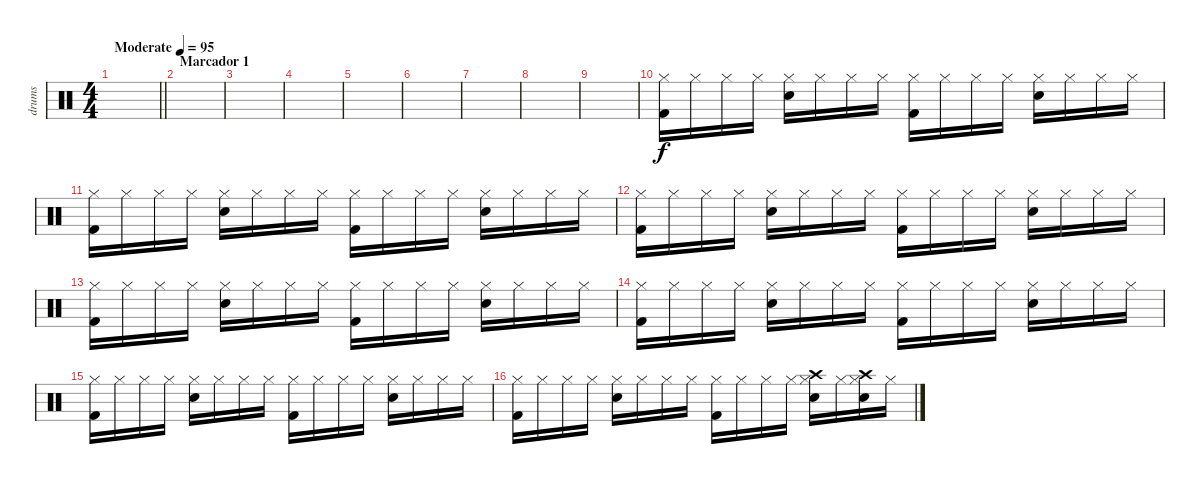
\track ("drums" "drums") {instrument percussion}
\staff {score}
\articulation defaults
\ts (4 4)
\tempo (95 "Moderate")
\clef neutral
\barLineRight lightlight
\ks c
|
\section ("" "Marcador 1")
|
|
|
|
|
|
|
|
("Kick (hit) 2" "Hi-Hat (closed)").16 "Hi-Hat (closed)".16 "Hi-Hat (closed)".16 "Hi-Hat (closed)".16 ("Snare (hit) 2" "Hi-Hat (closed)").16 "Hi-Hat (closed)".16 "Hi-Hat (closed)".16 "Hi-Hat (closed)".16 ("Kick (hit) 2" "Hi-Hat (closed)").16 "Hi-Hat (closed)".16 "Hi-Hat (closed)".16 "Hi-Hat (closed)".16 ("Snare (hit) 2" "Hi-Hat (closed)").16 "Hi-Hat (closed)".16 "Hi-Hat (closed)".16 "Hi-Hat (closed)".16 |
("Kick (hit) 2" "Hi-Hat (closed)").16 "Hi-Hat (closed)".16 "Hi-Hat (closed)".16 "Hi-Hat (closed)".16 ("Snare (hit) 2" "Hi-Hat (closed)").16 "Hi-Hat (closed)".16 "Hi-Hat (closed)".16 "Hi-Hat (closed)".16 ("Kick (hit) 2" "Hi-Hat (closed)").16 "Hi-Hat (closed)".16 "Hi-Hat (closed)".16 "Hi-Hat (closed)".16 ("Snare (hit) 2" "Hi-Hat (closed)").16 "Hi-Hat (closed)".16 "Hi-Hat (closed)".16 "Hi-Hat (closed)".16 |
("Kick (hit) 2" "Hi-Hat (closed)").16 "Hi-Hat (closed)".16 "Hi-Hat (closed)".16 "Hi-Hat (closed)".16 ("Snare (hit) 2" "Hi-Hat (closed)").16 "Hi-Hat (closed)".16 "Hi-Hat (closed)".16 "Hi-Hat (closed)".16 ("Kick (hit) 2" "Hi-Hat (closed)").16 "Hi-Hat (closed)".16 "Hi-Hat (closed)".16 "Hi-Hat (closed)".16 ("Snare (hit) 2" "Hi-Hat (closed)").16 "Hi-Hat (closed)".16 "Hi-Hat (closed)".16 "Hi-Hat (closed)".16 |
("Kick (hit) 2" "Hi-Hat (closed)").16 "Hi-Hat (closed)".16 "Hi-Hat (closed)".16 "Hi-Hat (closed)".16 ("Snare (hit) 2" "Hi-Hat (closed)").16 "Hi-Hat (closed)".16 "Hi-Hat (closed)".16 "Hi-Hat (closed)".16 ("Kick (hit) 2" "Hi-Hat (closed)").16 "Hi-Hat (closed)".16 "Hi-Hat (closed)".16 "Hi-Hat (closed)".16 ("Snare (hit) 2" "Hi-Hat (closed)").16 "Hi-Hat (closed)".16 "Hi-Hat (closed)".16 "Hi-Hat (closed)".16 |
("Kick (hit) 2" "Hi-Hat (closed)").16 "Hi-Hat (closed)".16 "Hi-Hat (closed)".16 "Hi-Hat (closed)".16 ("Snare (hit) 2" "Hi-Hat (closed)").16 "Hi-Hat (closed)".16 "Hi-Hat (closed)".16 "Hi-Hat (closed)".16 ("Kick (hit) 2" "Hi-Hat (closed)").16 "Hi-Hat (closed)".16 "Hi-Hat (closed)".16 "Hi-Hat (closed)".16 ("Snare (hit) 2" "Hi-Hat (closed)").16 "Hi-Hat (closed)".16 "Hi-Hat (closed)".16 "Hi-Hat (closed)".16 |
("Kick (hit) 2" "Hi-Hat (closed)").16 "Hi-Hat (closed)".16 "Hi-Hat (closed)".16 "Hi-Hat (closed)".16 ("Snare (hit) 2" "Hi-Hat (closed)").16 "Hi-Hat (closed)".16 "Hi-Hat (closed)".16 "Hi-Hat (closed)".16 ("Kick (hit) 2" "Hi-Hat (closed)").16 "Hi-Hat (closed)".16 "Hi-Hat (closed)".16 "Hi-Hat (closed)".16 ("Snare (hit) 2" "Hi-Hat (closed)").16 "Hi-Hat (closed)".16 "Hi-Hat (closed)".16 "Hi-Hat (closed)".16 |
("Kick (hit) 2" "Hi-Hat (closed)").16 "Hi-Hat (closed)".16 "Hi-Hat (closed)".16 "Hi-Hat (closed)".16 ("Snare (hit) 2" "Hi-Hat (closed)").16 "Hi-Hat (closed)".16 "Hi-Hat (closed)".16 "Hi-Hat (closed)".16 ("Kick (hit) 2" "Hi-Hat (closed)").16 "Hi-Hat (closed)".16 "Hi-Hat (closed)".16 "Hi-Hat (closed)".16 ("Crash high (hit)" "Snare (hit) 2" "Hi-Hat (closed)").16 "Hi-Hat (closed)".16 ("Crash high (hit)" "Snare (hit) 2" "Hi-Hat (closed)").16 "Hi-Hat (closed)".16
